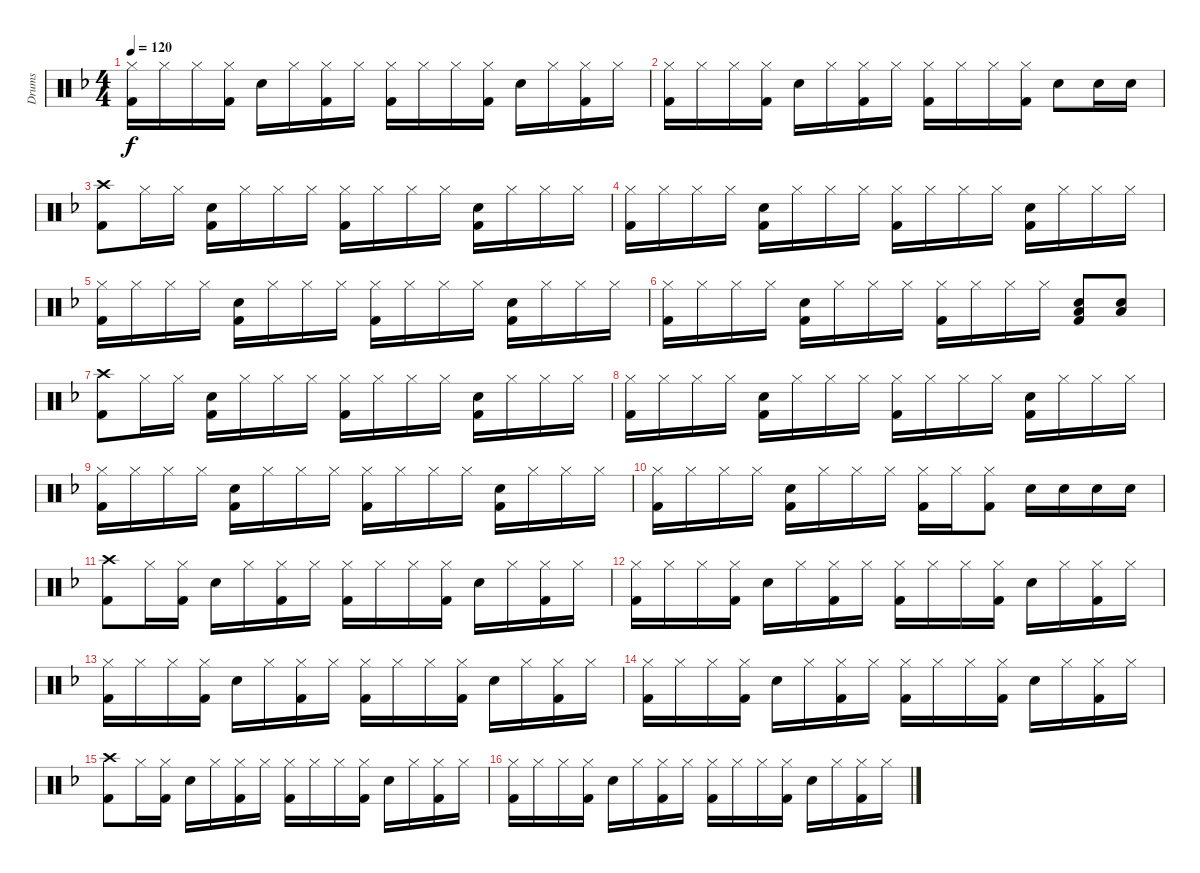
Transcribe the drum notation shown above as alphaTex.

\track ("Drums" "Drums") {instrument percussion}
\staff {score}
\articulation defaults
\ts (4 4)
\tempo 120
\clef neutral
\ks dminor
("Kick (hit) 2" "Hi-Hat (closed)").16{dy f} "Hi-Hat (closed)".16 "Hi-Hat (closed)".16 ("Kick (hit) 2" "Hi-Hat (closed)").16 "Snare (hit) 2".16 "Hi-Hat (closed)".16 ("Kick (hit) 2" "Hi-Hat (closed)").16 "Hi-Hat (closed)".16 ("Kick (hit) 2" "Hi-Hat (closed)").16 "Hi-Hat (closed)".16 "Hi-Hat (closed)".16 ("Kick (hit) 2" "Hi-Hat (closed)").16 "Snare (hit) 2".16 "Hi-Hat (closed)".16 ("Kick (hit) 2" "Hi-Hat (closed)").16 "Hi-Hat (closed)".16 |
("Kick (hit) 2" "Hi-Hat (closed)").16 "Hi-Hat (closed)".16 "Hi-Hat (closed)".16 ("Kick (hit) 2" "Hi-Hat (closed)").16 "Snare (hit) 2".16 "Hi-Hat (closed)".16 ("Kick (hit) 2" "Hi-Hat (closed)").16 "Hi-Hat (closed)".16 ("Kick (hit) 2" "Hi-Hat (closed)").16 "Hi-Hat (closed)".16 "Hi-Hat (closed)".16 ("Kick (hit) 2" "Hi-Hat (closed)").16 "Snare (hit) 2".8 "Snare (hit) 2".16 "Snare (hit) 2".16 |
("Kick (hit) 2" "Crash high (hit)").8 "Hi-Hat (closed)".16 "Hi-Hat (closed)".16 ("Kick (hit) 2" "Snare (hit) 2").16 "Hi-Hat (closed)".16 "Hi-Hat (closed)".16 "Hi-Hat (closed)".16 ("Kick (hit) 2" "Hi-Hat (closed)").16 "Hi-Hat (closed)".16 "Hi-Hat (closed)".16 "Hi-Hat (closed)".16 ("Kick (hit) 2" "Snare (hit) 2").16 "Hi-Hat (closed)".16 "Hi-Hat (closed)".16 "Hi-Hat (closed)".16 |
("Kick (hit) 2" "Hi-Hat (closed)").16 "Hi-Hat (closed)".16 "Hi-Hat (closed)".16 "Hi-Hat (closed)".16 ("Kick (hit) 2" "Snare (hit) 2").16 "Hi-Hat (closed)".16 "Hi-Hat (closed)".16 "Hi-Hat (closed)".16 ("Kick (hit) 2" "Hi-Hat (closed)").16 "Hi-Hat (closed)".16 "Hi-Hat (closed)".16 "Hi-Hat (closed)".16 ("Kick (hit) 2" "Snare (hit) 2").16 "Hi-Hat (closed)".16 "Hi-Hat (closed)".16 "Hi-Hat (closed)".16 |
("Kick (hit) 2" "Hi-Hat (closed)").16 "Hi-Hat (closed)".16 "Hi-Hat (closed)".16 "Hi-Hat (closed)".16 ("Kick (hit) 2" "Snare (hit) 2").16 "Hi-Hat (closed)".16 "Hi-Hat (closed)".16 "Hi-Hat (closed)".16 ("Kick (hit) 2" "Hi-Hat (closed)").16 "Hi-Hat (closed)".16 "Hi-Hat (closed)".16 "Hi-Hat (closed)".16 ("Kick (hit) 2" "Snare (hit) 2").16 "Hi-Hat (closed)".16 "Hi-Hat (closed)".16 "Hi-Hat (closed)".16 |
("Kick (hit) 2" "Hi-Hat (closed)").16 "Hi-Hat (closed)".16 "Hi-Hat (closed)".16 "Hi-Hat (closed)".16 ("Kick (hit) 2" "Snare (hit) 2").16 "Hi-Hat (closed)".16 "Hi-Hat (closed)".16 "Hi-Hat (closed)".16 ("Kick (hit) 2" "Hi-Hat (closed)").16 "Hi-Hat (closed)".16 "Hi-Hat (closed)".16 "Hi-Hat (closed)".16 ("Kick (hit) 2" "Snare (hit) 2" "Low Tom (hit)").8 ("Snare (hit) 2" "Low Tom (hit)").8 |
("Kick (hit) 2" "Crash high (hit)").8 "Hi-Hat (closed)".16 "Hi-Hat (closed)".16 ("Kick (hit) 2" "Snare (hit) 2").16 "Hi-Hat (closed)".16 "Hi-Hat (closed)".16 "Hi-Hat (closed)".16 ("Kick (hit) 2" "Hi-Hat (closed)").16 "Hi-Hat (closed)".16 "Hi-Hat (closed)".16 "Hi-Hat (closed)".16 ("Kick (hit) 2" "Snare (hit) 2").16 "Hi-Hat (closed)".16 "Hi-Hat (closed)".16 "Hi-Hat (closed)".16 |
("Kick (hit) 2" "Hi-Hat (closed)").16 "Hi-Hat (closed)".16 "Hi-Hat (closed)".16 "Hi-Hat (closed)".16 ("Kick (hit) 2" "Snare (hit) 2").16 "Hi-Hat (closed)".16 "Hi-Hat (closed)".16 "Hi-Hat (closed)".16 ("Kick (hit) 2" "Hi-Hat (closed)").16 "Hi-Hat (closed)".16 "Hi-Hat (closed)".16 "Hi-Hat (closed)".16 ("Kick (hit) 2" "Snare (hit) 2").16 "Hi-Hat (closed)".16 "Hi-Hat (closed)".16 "Hi-Hat (closed)".16 |
("Kick (hit) 2" "Hi-Hat (closed)").16 "Hi-Hat (closed)".16 "Hi-Hat (closed)".16 "Hi-Hat (closed)".16 ("Kick (hit) 2" "Snare (hit) 2").16 "Hi-Hat (closed)".16 "Hi-Hat (closed)".16 "Hi-Hat (closed)".16 ("Kick (hit) 2" "Hi-Hat (closed)").16 "Hi-Hat (closed)".16 "Hi-Hat (closed)".16 "Hi-Hat (closed)".16 ("Kick (hit) 2" "Snare (hit) 2").16 "Hi-Hat (closed)".16 "Hi-Hat (closed)".16 "Hi-Hat (closed)".16 |
("Kick (hit) 2" "Hi-Hat (closed)").16 "Hi-Hat (closed)".16 "Hi-Hat (closed)".16 "Hi-Hat (closed)".16 ("Kick (hit) 2" "Snare (hit) 2").16 "Hi-Hat (closed)".16 "Hi-Hat (closed)".16 "Hi-Hat (closed)".16 ("Kick (hit) 2" "Hi-Hat (closed)").16 "Hi-Hat (closed)".16 ("Kick (hit) 2" "Hi-Hat (closed)").8 "Snare (hit) 2".16 "Snare (hit) 2".16 "Snare (hit) 2".16 "Snare (hit) 2".16 |
("Kick (hit) 2" "Crash high (hit)").8 "Hi-Hat (closed)".16 ("Kick (hit) 2" "Hi-Hat (closed)").16 "Snare (hit) 2".16 "Hi-Hat (closed)".16 ("Kick (hit) 2" "Hi-Hat (closed)").16 "Hi-Hat (closed)".16 ("Kick (hit) 2" "Hi-Hat (closed)").16 "Hi-Hat (closed)".16 "Hi-Hat (closed)".16 ("Kick (hit) 2" "Hi-Hat (closed)").16 "Snare (hit) 2".16 "Hi-Hat (closed)".16 ("Kick (hit) 2" "Hi-Hat (closed)").16 "Hi-Hat (closed)".16 |
("Kick (hit) 2" "Hi-Hat (closed)").16 "Hi-Hat (closed)".16 "Hi-Hat (closed)".16 ("Kick (hit) 2" "Hi-Hat (closed)").16 "Snare (hit) 2".16 "Hi-Hat (closed)".16 ("Kick (hit) 2" "Hi-Hat (closed)").16 "Hi-Hat (closed)".16 ("Kick (hit) 2" "Hi-Hat (closed)").16 "Hi-Hat (closed)".16 "Hi-Hat (closed)".16 ("Kick (hit) 2" "Hi-Hat (closed)").16 "Snare (hit) 2".16 "Hi-Hat (closed)".16 ("Kick (hit) 2" "Hi-Hat (closed)").16 "Hi-Hat (closed)".16 |
("Kick (hit) 2" "Hi-Hat (closed)").16 "Hi-Hat (closed)".16 "Hi-Hat (closed)".16 ("Kick (hit) 2" "Hi-Hat (closed)").16 "Snare (hit) 2".16 "Hi-Hat (closed)".16 ("Kick (hit) 2" "Hi-Hat (closed)").16 "Hi-Hat (closed)".16 ("Kick (hit) 2" "Hi-Hat (closed)").16 "Hi-Hat (closed)".16 "Hi-Hat (closed)".16 ("Kick (hit) 2" "Hi-Hat (closed)").16 "Snare (hit) 2".16 "Hi-Hat (closed)".16 ("Kick (hit) 2" "Hi-Hat (closed)").16 "Hi-Hat (closed)".16 |
("Kick (hit) 2" "Hi-Hat (closed)").16 "Hi-Hat (closed)".16 "Hi-Hat (closed)".16 ("Kick (hit) 2" "Hi-Hat (closed)").16 "Snare (hit) 2".16 "Hi-Hat (closed)".16 ("Kick (hit) 2" "Hi-Hat (closed)").16 "Hi-Hat (closed)".16 ("Kick (hit) 2" "Hi-Hat (closed)").16 "Hi-Hat (closed)".16 "Hi-Hat (closed)".16 ("Kick (hit) 2" "Hi-Hat (closed)").16 "Snare (hit) 2".16 "Hi-Hat (closed)".16 ("Kick (hit) 2" "Hi-Hat (closed)").16 "Hi-Hat (closed)".16 |
("Kick (hit) 2" "Crash high (hit)").8 "Hi-Hat (closed)".16 ("Kick (hit) 2" "Hi-Hat (closed)").16 "Snare (hit) 2".16 "Hi-Hat (closed)".16 ("Kick (hit) 2" "Hi-Hat (closed)").16 "Hi-Hat (closed)".16 ("Kick (hit) 2" "Hi-Hat (closed)").16 "Hi-Hat (closed)".16 "Hi-Hat (closed)".16 ("Kick (hit) 2" "Hi-Hat (closed)").16 "Snare (hit) 2".16 "Hi-Hat (closed)".16 ("Kick (hit) 2" "Hi-Hat (closed)").16 "Hi-Hat (closed)".16 |
("Kick (hit) 2" "Hi-Hat (closed)").16 "Hi-Hat (closed)".16 "Hi-Hat (closed)".16 ("Kick (hit) 2" "Hi-Hat (closed)").16 "Snare (hit) 2".16 "Hi-Hat (closed)".16 ("Kick (hit) 2" "Hi-Hat (closed)").16 "Hi-Hat (closed)".16 ("Kick (hit) 2" "Hi-Hat (closed)").16 "Hi-Hat (closed)".16 "Hi-Hat (closed)".16 ("Kick (hit) 2" "Hi-Hat (closed)").16 "Snare (hit) 2".16 "Hi-Hat (closed)".16 ("Kick (hit) 2" "Hi-Hat (closed)").16 "Hi-Hat (closed)".16
